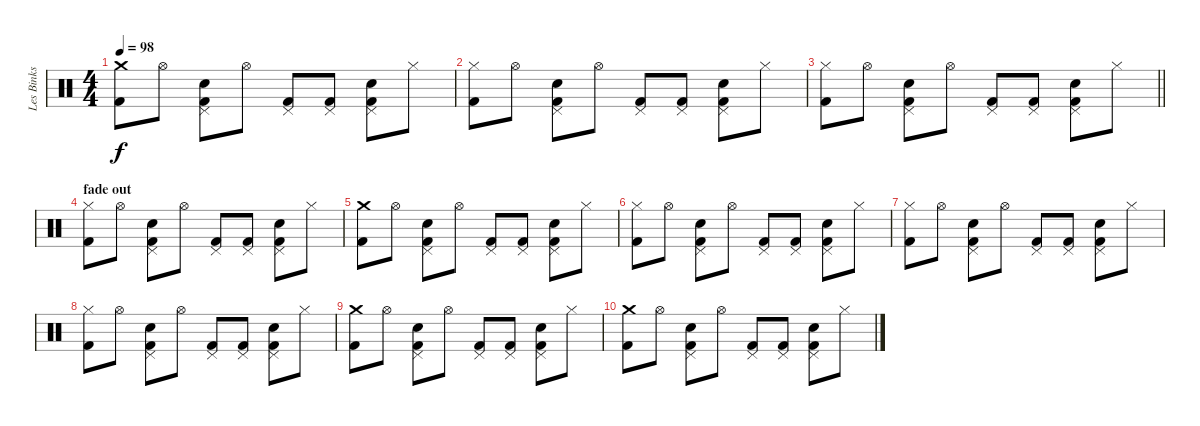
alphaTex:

\track ("Les Binks" "Les Binks") {instrument percussion}
\staff {score}
\articulation defaults
\ts (4 4)
\tempo 98
\clef neutral
\ks c
("Crash medium (hit)" "Kick (hit) 2").8{dy f} "Hi-Hat (open)".8 ("Pedal Hi-Hat (hit)" "Snare (hit) 2" "Kick (hit) 2").8 "Hi-Hat (open)".8 ("Pedal Hi-Hat (hit)" "Kick (hit) 2").8 ("Pedal Hi-Hat (hit)" "Kick (hit) 2").8 ("Pedal Hi-Hat (hit)" "Snare (hit) 2" "Kick (hit) 2").8 "Hi-Hat (closed)".8 |
("Hi-Hat (closed)" "Kick (hit) 2").8 "Hi-Hat (open)".8 ("Pedal Hi-Hat (hit)" "Snare (hit) 2" "Kick (hit) 2").8 "Hi-Hat (open)".8 ("Pedal Hi-Hat (hit)" "Kick (hit) 2").8 ("Pedal Hi-Hat (hit)" "Kick (hit) 2").8 ("Pedal Hi-Hat (hit)" "Snare (hit) 2" "Kick (hit) 2").8 "Hi-Hat (closed)".8 |
\barLineRight lightlight
("Hi-Hat (closed)" "Kick (hit) 2").8 "Hi-Hat (open)".8 ("Pedal Hi-Hat (hit)" "Snare (hit) 2" "Kick (hit) 2").8 "Hi-Hat (open)".8 ("Pedal Hi-Hat (hit)" "Kick (hit) 2").8 ("Pedal Hi-Hat (hit)" "Kick (hit) 2").8 ("Pedal Hi-Hat (hit)" "Snare (hit) 2" "Kick (hit) 2").8 "Hi-Hat (closed)".8 |
\section ("" "fade out")
("Hi-Hat (closed)" "Kick (hit) 2").8 "Hi-Hat (open)".8 ("Pedal Hi-Hat (hit)" "Snare (hit) 2" "Kick (hit) 2").8 "Hi-Hat (open)".8 ("Pedal Hi-Hat (hit)" "Kick (hit) 2").8 ("Pedal Hi-Hat (hit)" "Kick (hit) 2").8 ("Pedal Hi-Hat (hit)" "Snare (hit) 2" "Kick (hit) 2").8 "Hi-Hat (closed)".8 |
("Crash medium (hit)" "Kick (hit) 2").8 "Hi-Hat (open)".8 ("Pedal Hi-Hat (hit)" "Snare (hit) 2" "Kick (hit) 2").8 "Hi-Hat (open)".8 ("Pedal Hi-Hat (hit)" "Kick (hit) 2").8 ("Pedal Hi-Hat (hit)" "Kick (hit) 2").8 ("Pedal Hi-Hat (hit)" "Snare (hit) 2" "Kick (hit) 2").8 "Hi-Hat (closed)".8 |
("Hi-Hat (closed)" "Kick (hit) 2").8 "Hi-Hat (open)".8 ("Pedal Hi-Hat (hit)" "Snare (hit) 2" "Kick (hit) 2").8 "Hi-Hat (open)".8 ("Pedal Hi-Hat (hit)" "Kick (hit) 2").8 ("Pedal Hi-Hat (hit)" "Kick (hit) 2").8 ("Pedal Hi-Hat (hit)" "Snare (hit) 2" "Kick (hit) 2").8 "Hi-Hat (closed)".8 |
("Hi-Hat (closed)" "Kick (hit) 2").8 "Hi-Hat (open)".8 ("Pedal Hi-Hat (hit)" "Snare (hit) 2" "Kick (hit) 2").8 "Hi-Hat (open)".8 ("Pedal Hi-Hat (hit)" "Kick (hit) 2").8 ("Pedal Hi-Hat (hit)" "Kick (hit) 2").8 ("Pedal Hi-Hat (hit)" "Snare (hit) 2" "Kick (hit) 2").8 "Hi-Hat (closed)".8 |
("Hi-Hat (closed)" "Kick (hit) 2").8 "Hi-Hat (open)".8 ("Pedal Hi-Hat (hit)" "Snare (hit) 2" "Kick (hit) 2").8 "Hi-Hat (open)".8 ("Pedal Hi-Hat (hit)" "Kick (hit) 2").8 ("Pedal Hi-Hat (hit)" "Kick (hit) 2").8 ("Pedal Hi-Hat (hit)" "Snare (hit) 2" "Kick (hit) 2").8 "Hi-Hat (closed)".8 |
("Crash medium (hit)" "Kick (hit) 2").8 "Hi-Hat (open)".8 ("Pedal Hi-Hat (hit)" "Snare (hit) 2" "Kick (hit) 2").8 "Hi-Hat (open)".8 ("Pedal Hi-Hat (hit)" "Kick (hit) 2").8 ("Pedal Hi-Hat (hit)" "Kick (hit) 2").8 ("Pedal Hi-Hat (hit)" "Snare (hit) 2" "Kick (hit) 2").8 "Hi-Hat (closed)".8 |
("Crash medium (hit)" "Kick (hit) 2").8 "Hi-Hat (open)".8 ("Pedal Hi-Hat (hit)" "Snare (hit) 2" "Kick (hit) 2").8 "Hi-Hat (open)".8 ("Pedal Hi-Hat (hit)" "Kick (hit) 2").8 ("Pedal Hi-Hat (hit)" "Kick (hit) 2").8 ("Pedal Hi-Hat (hit)" "Snare (hit) 2" "Kick (hit) 2").8 "Hi-Hat (closed)".8
